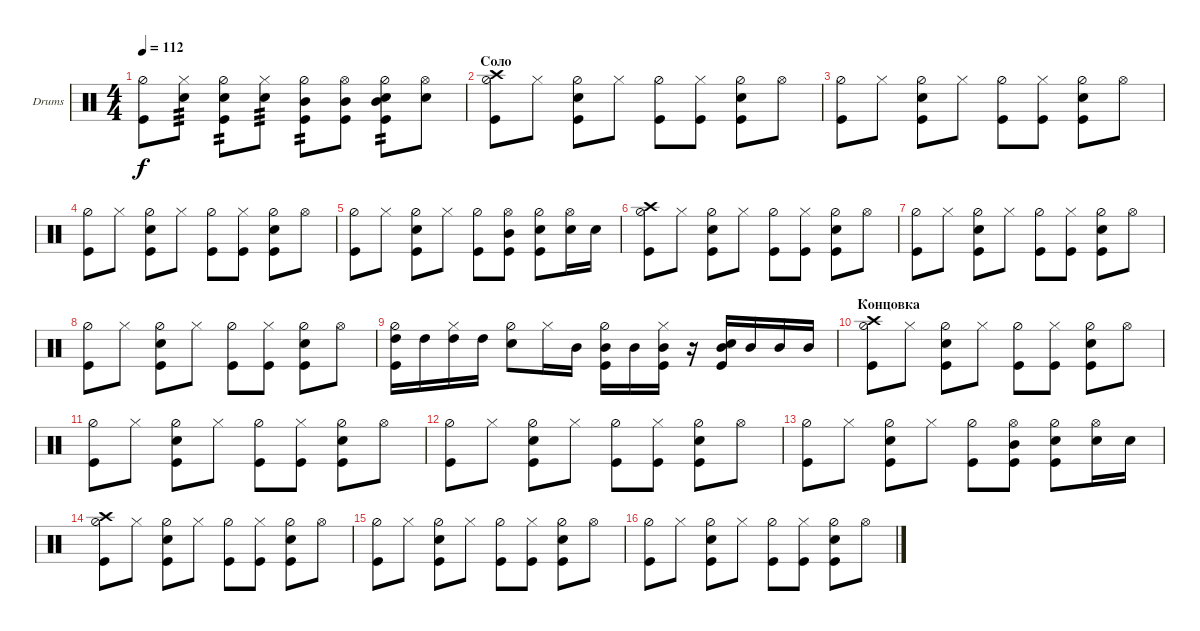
\defaultSystemsLayout 4
\bracketExtendMode groupsimilarinstruments
\firstSystemTrackNameOrientation horizontal
\otherSystemsTrackNameOrientation horizontal
\track ("Drumkit" "Drums") {instrument percussion}
\staff {score}
\articulation defaults
\ts (4 4)
\tempo 112
\clef neutral
\ks c
("Hi-Hat (half)" "Kick (hit)").8{dy f} ("Hi-Hat (closed)" "Snare (hit) 2").8{tp 3} ("Hi-Hat (half)" "Snare (hit) 2" "Kick (hit)").8{tp 2} ("Hi-Hat (closed)" "Snare (hit) 2").8{tp 3} ("Hi-Hat (half)" "Kick (hit)" "Mid Tom (hit)").8{tp 2} ("Hi-Hat (open)" "Kick (hit)" "Mid Tom (hit)").8 ("Hi-Hat (half)" "Snare (hit) 2" "Kick (hit)" "Mid Tom (hit)").8{tp 2} ("Hi-Hat (open)" "Snare (hit) 2").8 |
\section ("" "Соло")
("Hi-Hat (half)" "Kick (hit)" "Crash high (hit)").8 "Hi-Hat (closed)".8 ("Hi-Hat (half)" "Snare (hit) 2" "Kick (hit)").8 "Hi-Hat (closed)".8 ("Hi-Hat (half)" "Kick (hit)").8 ("Hi-Hat (closed)" "Kick (hit)").8 ("Hi-Hat (half)" "Snare (hit) 2" "Kick (hit)").8 "Hi-Hat (open)".8 |
("Hi-Hat (half)" "Kick (hit)").8 "Hi-Hat (closed)".8 ("Hi-Hat (half)" "Snare (hit) 2" "Kick (hit)").8 "Hi-Hat (closed)".8 ("Hi-Hat (half)" "Kick (hit)").8 ("Hi-Hat (closed)" "Kick (hit)").8 ("Hi-Hat (half)" "Snare (hit) 2" "Kick (hit)").8 "Hi-Hat (open)".8 |
("Hi-Hat (half)" "Kick (hit)").8 "Hi-Hat (closed)".8 ("Hi-Hat (half)" "Snare (hit) 2" "Kick (hit)").8 "Hi-Hat (closed)".8 ("Hi-Hat (half)" "Kick (hit)").8 ("Hi-Hat (closed)" "Kick (hit)").8 ("Hi-Hat (half)" "Snare (hit) 2" "Kick (hit)").8 "Hi-Hat (open)".8 |
("Hi-Hat (half)" "Kick (hit)").8 "Hi-Hat (closed)".8 ("Hi-Hat (half)" "Snare (hit) 2" "Kick (hit)").8 "Hi-Hat (closed)".8 ("Hi-Hat (half)" "Kick (hit)").8 ("Hi-Hat (open)" "Kick (hit)" "Mid Tom (hit)").8 ("Hi-Hat (half)" "Snare (hit) 2" "Kick (hit)").8 ("Hi-Hat (open)" "Snare (hit) 2").16 "Snare (hit) 2".16 |
("Hi-Hat (half)" "Kick (hit)" "Crash high (hit)").8 "Hi-Hat (closed)".8 ("Hi-Hat (half)" "Snare (hit) 2" "Kick (hit)").8 "Hi-Hat (closed)".8 ("Hi-Hat (half)" "Kick (hit)").8 ("Hi-Hat (closed)" "Kick (hit)").8 ("Hi-Hat (half)" "Snare (hit) 2" "Kick (hit)").8 "Hi-Hat (open)".8 |
("Hi-Hat (half)" "Kick (hit)").8 "Hi-Hat (closed)".8 ("Hi-Hat (half)" "Snare (hit) 2" "Kick (hit)").8 "Hi-Hat (closed)".8 ("Hi-Hat (half)" "Kick (hit)").8 ("Hi-Hat (closed)" "Kick (hit)").8 ("Hi-Hat (half)" "Snare (hit) 2" "Kick (hit)").8 "Hi-Hat (open)".8 |
("Hi-Hat (half)" "Kick (hit)").8 "Hi-Hat (closed)".8 ("Hi-Hat (half)" "Snare (hit) 2" "Kick (hit)").8 "Hi-Hat (closed)".8 ("Hi-Hat (half)" "Kick (hit)").8 ("Hi-Hat (closed)" "Kick (hit)").8 ("Hi-Hat (half)" "Snare (hit) 2" "Kick (hit)").8 "Hi-Hat (open)".8 |
("High Tom (hit)" "Hi-Hat (half)" "Kick (hit)").16 "High Tom (hit)".16 ("High Tom (hit)" "Hi-Hat (closed)").16 "High Tom (hit)".16 ("Snare (hit) 2" "Hi-Hat (half)").8 "Hi-Hat (closed)".16 "Mid Tom (hit)".16 ("Kick (hit)" "Mid Tom (hit)" "Hi-Hat (half)").16 "Mid Tom (hit)".16 ("Mid Tom (hit)" "Kick (hit)" "Hi-Hat (closed)").16 r.16 ("Kick (hit)" "Snare (hit) 2" "Mid Tom (hit)").16 "Mid Tom (hit)".16 "Mid Tom (hit)".16 "Mid Tom (hit)".16 |
\section ("" "Концовка")
("Hi-Hat (half)" "Kick (hit)" "Crash high (hit)").8 "Hi-Hat (closed)".8 ("Hi-Hat (half)" "Snare (hit) 2" "Kick (hit)").8 "Hi-Hat (closed)".8 ("Hi-Hat (half)" "Kick (hit)").8 ("Hi-Hat (closed)" "Kick (hit)").8 ("Hi-Hat (half)" "Snare (hit) 2" "Kick (hit)").8 "Hi-Hat (open)".8 |
("Hi-Hat (half)" "Kick (hit)").8 "Hi-Hat (closed)".8 ("Hi-Hat (half)" "Snare (hit) 2" "Kick (hit)").8 "Hi-Hat (closed)".8 ("Hi-Hat (half)" "Kick (hit)").8 ("Hi-Hat (closed)" "Kick (hit)").8 ("Hi-Hat (half)" "Snare (hit) 2" "Kick (hit)").8 "Hi-Hat (open)".8 |
("Hi-Hat (half)" "Kick (hit)").8 "Hi-Hat (closed)".8 ("Hi-Hat (half)" "Snare (hit) 2" "Kick (hit)").8 "Hi-Hat (closed)".8 ("Hi-Hat (half)" "Kick (hit)").8 ("Hi-Hat (closed)" "Kick (hit)").8 ("Hi-Hat (half)" "Snare (hit) 2" "Kick (hit)").8 "Hi-Hat (open)".8 |
("Hi-Hat (half)" "Kick (hit)").8 "Hi-Hat (closed)".8 ("Hi-Hat (half)" "Snare (hit) 2" "Kick (hit)").8 "Hi-Hat (closed)".8 ("Hi-Hat (half)" "Kick (hit)").8 ("Hi-Hat (open)" "Kick (hit)" "Mid Tom (hit)").8 ("Hi-Hat (half)" "Snare (hit) 2" "Kick (hit)").8 ("Hi-Hat (open)" "Snare (hit) 2").16 "Snare (hit) 2".16 |
("Hi-Hat (half)" "Kick (hit)" "Crash high (hit)").8 "Hi-Hat (closed)".8 ("Hi-Hat (half)" "Snare (hit) 2" "Kick (hit)").8 "Hi-Hat (closed)".8 ("Hi-Hat (half)" "Kick (hit)").8 ("Hi-Hat (closed)" "Kick (hit)").8 ("Hi-Hat (half)" "Snare (hit) 2" "Kick (hit)").8 "Hi-Hat (open)".8 |
("Hi-Hat (half)" "Kick (hit)").8 "Hi-Hat (closed)".8 ("Hi-Hat (half)" "Snare (hit) 2" "Kick (hit)").8 "Hi-Hat (closed)".8 ("Hi-Hat (half)" "Kick (hit)").8 ("Hi-Hat (closed)" "Kick (hit)").8 ("Hi-Hat (half)" "Snare (hit) 2" "Kick (hit)").8 "Hi-Hat (open)".8 |
("Hi-Hat (half)" "Kick (hit)").8 "Hi-Hat (closed)".8 ("Hi-Hat (half)" "Snare (hit) 2" "Kick (hit)").8 "Hi-Hat (closed)".8 ("Hi-Hat (half)" "Kick (hit)").8 ("Hi-Hat (closed)" "Kick (hit)").8 ("Hi-Hat (half)" "Snare (hit) 2" "Kick (hit)").8 "Hi-Hat (open)".8
